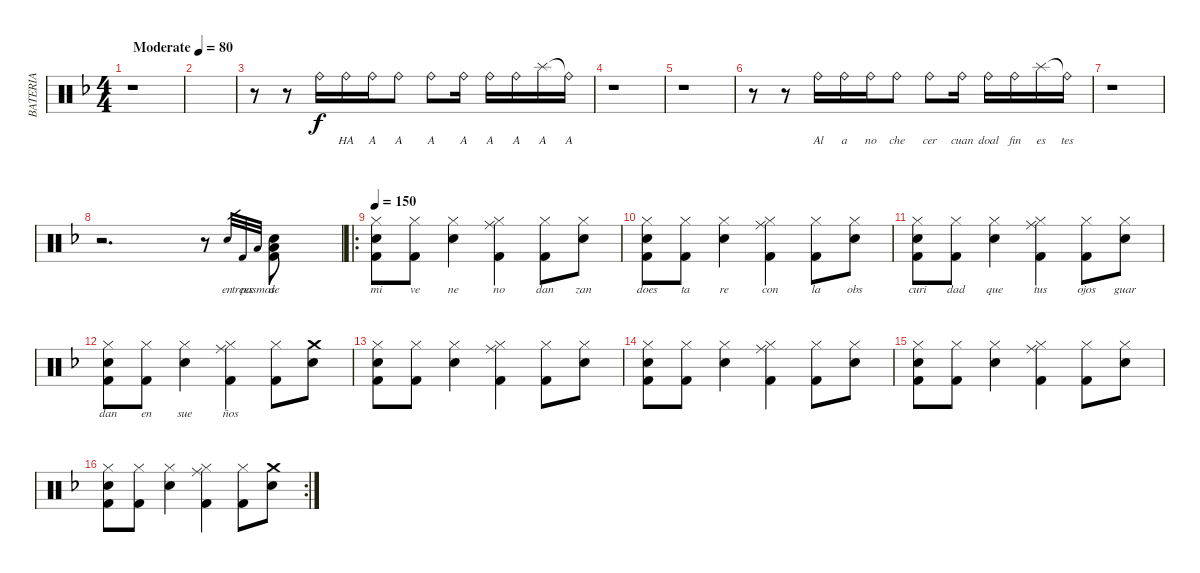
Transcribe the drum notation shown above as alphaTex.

\track ("BATERIA" "BATERIA") {instrument percussion}
\staff {score}
\articulation defaults
\ts (4 4)
\tempo (80 "Moderate")
\clef neutral
\ks dminor
r.1{dy f} |
|
r.8 r.8 "Ride (bell)".16{lyrics (0 "") lyrics (1 "") lyrics (2 "") lyrics (3 "") lyrics (4 "")} "Ride (bell)".16{lyrics (0 "HA") lyrics (1 "") lyrics (2 "") lyrics (3 "") lyrics (4 "")} "Ride (bell)".16{lyrics (0 "A") lyrics (1 "") lyrics (2 "") lyrics (3 "") lyrics (4 "")} "Ride (bell)".8{lyrics (0 "A") lyrics (1 "") lyrics (2 "") lyrics (3 "") lyrics (4 "")} "Ride (bell)".8{lyrics (0 "A") lyrics (1 "") lyrics (2 "") lyrics (3 "") lyrics (4 "")} "Ride (bell)".16{lyrics (0 "A") lyrics (1 "") lyrics (2 "") lyrics (3 "") lyrics (4 "")} "Ride (bell)".16{lyrics (0 "A") lyrics (1 "") lyrics (2 "") lyrics (3 "") lyrics (4 "")} "Ride (bell)".16{lyrics (0 "A") lyrics (1 "") lyrics (2 "") lyrics (3 "") lyrics (4 "")} "Splash (hit)".16{lyrics (0 "A") lyrics (1 "") lyrics (2 "") lyrics (3 "") lyrics (4 "")} "Ride (bell)"{t}.16{lyrics (0 "A") lyrics (1 "") lyrics (2 "") lyrics (3 "") lyrics (4 "")} |
r.1 |
r.1 |
r.8 r.8 "Ride (bell)".16{lyrics (0 "Al") lyrics (1 "") lyrics (2 "") lyrics (3 "") lyrics (4 "")} "Ride (bell)".16{lyrics (0 "a") lyrics (1 "") lyrics (2 "") lyrics (3 "") lyrics (4 "")} "Ride (bell)".16{lyrics (0 "no") lyrics (1 "") lyrics (2 "") lyrics (3 "") lyrics (4 "")} "Ride (bell)".8{lyrics (0 "che") lyrics (1 "") lyrics (2 "") lyrics (3 "") lyrics (4 "")} "Ride (bell)".8{lyrics (0 "cer") lyrics (1 "") lyrics (2 "") lyrics (3 "") lyrics (4 "")} "Ride (bell)".16{lyrics (0 "cuan") lyrics (1 "") lyrics (2 "") lyrics (3 "") lyrics (4 "")} "Ride (bell)".16{lyrics (0 "doal") lyrics (1 "") lyrics (2 "") lyrics (3 "") lyrics (4 "")} "Ride (bell)".16{lyrics (0 "fin") lyrics (1 "") lyrics (2 "") lyrics (3 "") lyrics (4 "")} "Splash (hit)".16{lyrics (0 "es") lyrics (1 "") lyrics (2 "") lyrics (3 "") lyrics (4 "")} "Ride (bell)"{t}.16{lyrics (0 "tes") lyrics (1 "") lyrics (2 "") lyrics (3 "") lyrics (4 "")} |
r.1 |
r.2{d} r.8 "Snare (hit) 2".32{lyrics (0 "en") lyrics (1 "") lyrics (2 "") lyrics (3 "") lyrics (4 "") gr} "Kick (hit) 2".32{lyrics (0 "trees") lyrics (1 "") lyrics (2 "") lyrics (3 "") lyrics (4 "") gr} "Low Floor Tom (hit)".32{lyrics (0 "pasmos") lyrics (1 "") lyrics (2 "") lyrics (3 "") lyrics (4 "") gr} ("Snare (hit) 2" "Kick (hit) 2" "Low Floor Tom (hit)").8{lyrics (0 "de") lyrics (1 "") lyrics (2 "") lyrics (3 "") lyrics (4 "")} |
\ro
\tempo 150
("Hi-Hat (closed)" "Snare (hit) 2" "Kick (hit) 2").8{lyrics (0 "mi") lyrics (1 "") lyrics (2 "") lyrics (3 "") lyrics (4 "")} ("Hi-Hat (closed)" "Kick (hit) 2").8{lyrics (0 "ve") lyrics (1 "") lyrics (2 "") lyrics (3 "") lyrics (4 "")} ("Hi-Hat (closed)" "Snare (hit) 2").4{lyrics (0 "ne") lyrics (1 "") lyrics (2 "") lyrics (3 "") lyrics (4 "")} ("Hi-Hat (closed)" "Ride (middle)" "Kick (hit) 2").4{lyrics (0 "no") lyrics (1 "") lyrics (2 "") lyrics (3 "") lyrics (4 "")} ("Hi-Hat (closed)" "Kick (hit) 2").8{lyrics (0 "dan") lyrics (1 "") lyrics (2 "") lyrics (3 "") lyrics (4 "")} ("Hi-Hat (closed)" "Snare (hit) 2").8{lyrics (0 "zan") lyrics (1 "") lyrics (2 "") lyrics (3 "") lyrics (4 "")} |
("Hi-Hat (closed)" "Snare (hit) 2" "Kick (hit) 2").8{lyrics (0 "does") lyrics (1 "") lyrics (2 "") lyrics (3 "") lyrics (4 "")} ("Hi-Hat (closed)" "Kick (hit) 2").8{lyrics (0 "ta") lyrics (1 "") lyrics (2 "") lyrics (3 "") lyrics (4 "")} ("Hi-Hat (closed)" "Snare (hit) 2").4{lyrics (0 "re") lyrics (1 "") lyrics (2 "") lyrics (3 "") lyrics (4 "")} ("Hi-Hat (closed)" "Ride (middle)" "Kick (hit) 2").4{lyrics (0 "con") lyrics (1 "") lyrics (2 "") lyrics (3 "") lyrics (4 "")} ("Hi-Hat (closed)" "Kick (hit) 2").8{lyrics (0 "la") lyrics (1 "") lyrics (2 "") lyrics (3 "") lyrics (4 "")} ("Hi-Hat (closed)" "Snare (hit) 2").8{lyrics (0 "obs") lyrics (1 "") lyrics (2 "") lyrics (3 "") lyrics (4 "")} |
("Hi-Hat (closed)" "Snare (hit) 2" "Kick (hit) 2").8{lyrics (0 "curi") lyrics (1 "") lyrics (2 "") lyrics (3 "") lyrics (4 "")} ("Hi-Hat (closed)" "Kick (hit) 2").8{lyrics (0 "dad") lyrics (1 "") lyrics (2 "") lyrics (3 "") lyrics (4 "")} ("Hi-Hat (closed)" "Snare (hit) 2").4{lyrics (0 "que") lyrics (1 "") lyrics (2 "") lyrics (3 "") lyrics (4 "")} ("Hi-Hat (closed)" "Ride (middle)" "Kick (hit) 2").4{lyrics (0 "tus") lyrics (1 "") lyrics (2 "") lyrics (3 "") lyrics (4 "")} ("Hi-Hat (closed)" "Kick (hit) 2").8{lyrics (0 "ojos") lyrics (1 "") lyrics (2 "") lyrics (3 "") lyrics (4 "")} ("Hi-Hat (closed)" "Snare (hit) 2").8{lyrics (0 "guar") lyrics (1 "") lyrics (2 "") lyrics (3 "") lyrics (4 "")} |
("Hi-Hat (closed)" "Snare (hit) 2" "Kick (hit) 2").8{lyrics (0 "dan") lyrics (1 "") lyrics (2 "") lyrics (3 "") lyrics (4 "")} ("Hi-Hat (closed)" "Kick (hit) 2").8{lyrics (0 "en") lyrics (1 "") lyrics (2 "") lyrics (3 "") lyrics (4 "")} ("Hi-Hat (closed)" "Snare (hit) 2").4{lyrics (0 "sue") lyrics (1 "") lyrics (2 "") lyrics (3 "") lyrics (4 "")} ("Hi-Hat (closed)" "Ride (middle)" "Kick (hit) 2").4{lyrics (0 "ños") lyrics (1 "") lyrics (2 "") lyrics (3 "") lyrics (4 "")} ("Hi-Hat (closed)" "Kick (hit) 2").8 ("Crash medium (hit)" "Snare (hit) 2").8 |
("Hi-Hat (closed)" "Snare (hit) 2" "Kick (hit) 2").8 ("Hi-Hat (closed)" "Kick (hit) 2").8 ("Hi-Hat (closed)" "Snare (hit) 2").4 ("Hi-Hat (closed)" "Ride (middle)" "Kick (hit) 2").4 ("Hi-Hat (closed)" "Kick (hit) 2").8 ("Hi-Hat (closed)" "Snare (hit) 2").8 |
("Hi-Hat (closed)" "Snare (hit) 2" "Kick (hit) 2").8 ("Hi-Hat (closed)" "Kick (hit) 2").8 ("Hi-Hat (closed)" "Snare (hit) 2").4 ("Hi-Hat (closed)" "Ride (middle)" "Kick (hit) 2").4 ("Hi-Hat (closed)" "Kick (hit) 2").8 ("Hi-Hat (closed)" "Snare (hit) 2").8 |
("Hi-Hat (closed)" "Snare (hit) 2" "Kick (hit) 2").8 ("Hi-Hat (closed)" "Kick (hit) 2").8 ("Hi-Hat (closed)" "Snare (hit) 2").4 ("Hi-Hat (closed)" "Ride (middle)" "Kick (hit) 2").4 ("Hi-Hat (closed)" "Kick (hit) 2").8 ("Hi-Hat (closed)" "Snare (hit) 2").8 |
\rc 2
("Hi-Hat (closed)" "Snare (hit) 2" "Kick (hit) 2").8 ("Hi-Hat (closed)" "Kick (hit) 2").8 ("Hi-Hat (closed)" "Snare (hit) 2").4 ("Hi-Hat (closed)" "Ride (middle)" "Kick (hit) 2").4 ("Hi-Hat (closed)" "Kick (hit) 2").8 ("Crash medium (hit)" "Snare (hit) 2").8
